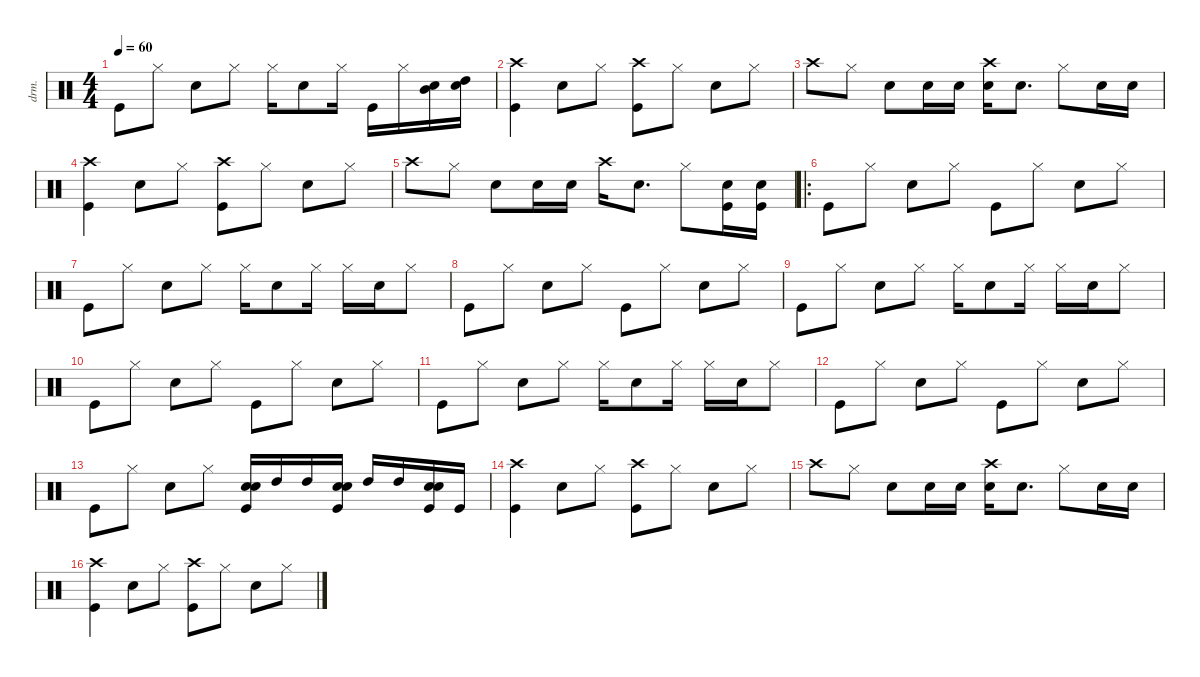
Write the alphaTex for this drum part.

\defaultSystemsLayout 4
\hideDynamics
\bracketExtendMode nobrackets
\otherSystemsTrackNameOrientation horizontal
\track ("Drums" "drm.") {instrument percussion}
\staff {score}
\articulation defaults
\ts (4 4)
\tempo 60
\clef neutral
\ks c "Kick (hit)".8{dy f} "Hi-Hat (closed)".8{dy mp} "Snare (hit) 2".8{dy f} "Hi-Hat (closed)".8{dy mp} "Hi-Hat (closed)".16{dy f} "Snare (hit) 2".8 "Hi-Hat (closed)".16 "Kick (hit)".16{dy mp} "Hi-Hat (closed)".16{dy f}
("Mid Tom (hit)" "Snare (hit) 2").16 ("High Tom (hit)" "Snare (hit) 2").16 |
("Crash high (hit)" "Kick (hit)").4 "Snare (hit) 2".8{dy mf} "Hi-Hat (closed)".8{dy p} ("Crash high (hit)" "Kick (hit)").8{dy f} "Hi-Hat (closed)".8{dy p} "Snare (hit) 2".8{dy f} "Hi-Hat (closed)".8{dy p} |
"Crash high (hit)".8{dy f} "Hi-Hat (closed)".8 "Snare (hit) 2".8 "Snare (hit) 2".16 "Snare (hit) 2".16 ("Snare (hit) 2" "Crash high (hit)").16 "Snare (hit) 2".8{d} "Hi-Hat (closed)".8 "Snare (hit) 2".16 "Snare (hit) 2".16 |
("Crash high (hit)" "Kick (hit)").4 "Snare (hit) 2".8{dy mf} "Hi-Hat (closed)".8{dy p} ("Crash high (hit)" "Kick (hit)").8{dy f} "Hi-Hat (closed)".8{dy p} "Snare (hit) 2".8{dy f} "Hi-Hat (closed)".8{dy p} |
"Crash high (hit)".8{dy f} "Hi-Hat (closed)".8 "Snare (hit) 2".8 "Snare (hit) 2".16 "Snare (hit) 2".16 "Crash high (hit)".16 "Snare (hit) 2".8{d} "Hi-Hat (closed)".8 ("Kick (hit)" "Snare (hit) 2").16 ("Kick (hit)" "Snare (hit) 2").16 |
\ro "Kick (hit)".8 "Hi-Hat (closed)".8 "Snare (hit) 2".8 "Hi-Hat (closed)".8 "Kick (hit)".8 "Hi-Hat (closed)".8 "Snare (hit) 2".8 "Hi-Hat (closed)".8
|
"Kick (hit)".8 "Hi-Hat (closed)".8{dy mp} "Snare (hit) 2".8{dy f} "Hi-Hat (closed)".8{dy mp} "Hi-Hat (closed)".16{dy f} "Snare (hit) 2".8 "Hi-Hat (closed)".16 "Hi-Hat (closed)".16{dy mp} "Snare (hit) 2".16{dy f} "Hi-Hat (closed)".8 |
"Kick (hit)".8 "Hi-Hat (closed)".8 "Snare (hit) 2".8 "Hi-Hat (closed)".8 "Kick (hit)".8 "Hi-Hat (closed)".8 "Snare (hit) 2".8 "Hi-Hat (closed)".8 |
"Kick (hit)".8 "Hi-Hat (closed)".8{dy mp} "Snare (hit) 2".8{dy f} "Hi-Hat (closed)".8{dy mp} "Hi-Hat (closed)".16{dy f} "Snare (hit) 2".8 "Hi-Hat (closed)".16 "Hi-Hat (closed)".16{dy mp} "Snare (hit) 2".16{dy f} "Hi-Hat (closed)".8 |
"Kick (hit)".8 "Hi-Hat (closed)".8 "Snare (hit) 2".8 "Hi-Hat (closed)".8 "Kick (hit)".8 "Hi-Hat (closed)".8 "Snare (hit) 2".8 "Hi-Hat (closed)".8 |
"Kick (hit)".8 "Hi-Hat (closed)".8{dy mp} "Snare (hit) 2".8{dy f} "Hi-Hat (closed)".8{dy mp} "Hi-Hat (closed)".16{dy f} "Snare (hit) 2".8 "Hi-Hat (closed)".16 "Hi-Hat (closed)".16{dy mp} "Snare (hit) 2".16{dy f} "Hi-Hat (closed)".8 |
"Kick (hit)".8 "Hi-Hat (closed)".8 "Snare (hit) 2".8 "Hi-Hat (closed)".8 "Kick (hit)".8 "Hi-Hat (closed)".8 "Snare (hit) 2".8 "Hi-Hat (closed)".8 |
"Kick (hit)".8 "Hi-Hat (closed)".8{dy mp} "Snare (hit) 2".8{dy f} "Hi-Hat (closed)".8{dy mp} ("Snare (hit) 2" "Snare (hit) 2" "Kick (hit)").16{dy fff} "High Tom (hit)".16{dy f} "High Tom (hit)".16 ("Snare (hit) 2" "Snare (hit) 2" "Kick (hit)").16{dy fff} "High Tom (hit)".16 "High Tom (hit)".16 ("Snare (hit) 2" "Snare (hit) 2" "Kick (hit)").16 "Kick (hit)".16 |
("Crash high (hit)" "Kick (hit)").4{dy f} "Snare (hit) 2".8{dy mf} "Hi-Hat (closed)".8{dy p} ("Crash high (hit)" "Kick (hit)").8{dy f} "Hi-Hat (closed)".8{dy p} "Snare (hit) 2".8{dy f} "Hi-Hat (closed)".8{dy p} |
"Crash high (hit)".8{dy f} "Hi-Hat (closed)".8 "Snare (hit) 2".8 "Snare (hit) 2".16 "Snare (hit) 2".16 ("Snare (hit) 2" "Crash high (hit)").16 "Snare (hit) 2".8{d} "Hi-Hat (closed)".8 "Snare (hit) 2".16 "Snare (hit) 2".16 |
("Crash high (hit)" "Kick (hit)").4 "Snare (hit) 2".8{dy mf} "Hi-Hat (closed)".8{dy p} ("Crash high (hit)" "Kick (hit)").8{dy f} "Hi-Hat (closed)".8{dy p} "Snare (hit) 2".8{dy f} "Hi-Hat (closed)".8{dy p}
